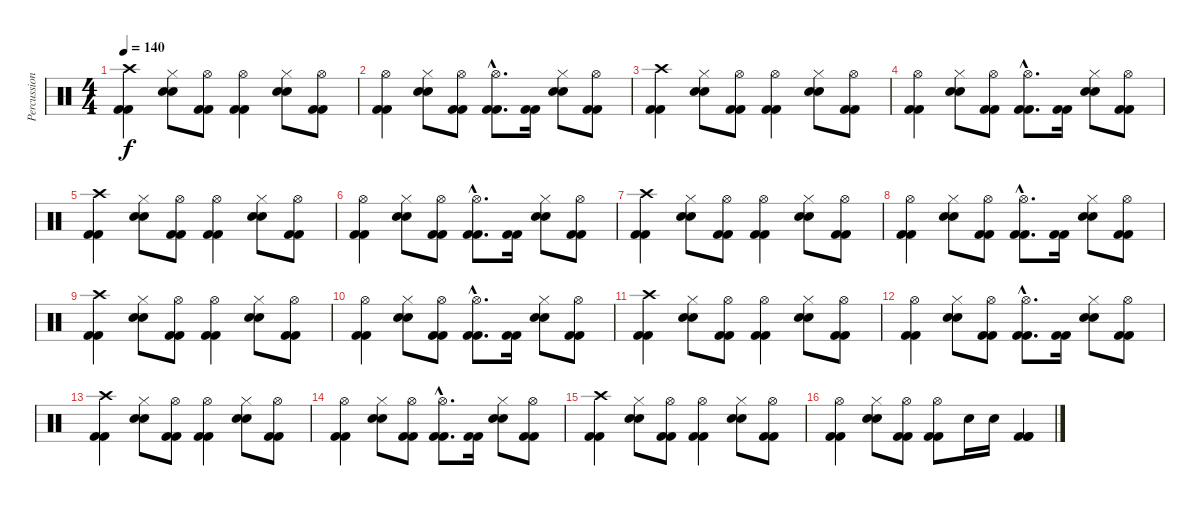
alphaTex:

\track ("Percussion" "Percussion") {instrument percussion}
\staff {score}
\articulation defaults
\ts (4 4)
\tempo 140
\clef neutral
\ks c
("Kick (hit) 2" "Kick (hit) 2" "Crash high (hit)").4{dy f} ("Snare (hit) 2" "Snare (hit) 2" "Hi-Hat (closed)").8 ("Kick (hit) 2" "Kick (hit) 2" "Hi-Hat (open)").8 ("Kick (hit) 2" "Kick (hit) 2" "Hi-Hat (open)").4 ("Snare (hit) 2" "Snare (hit) 2" "Hi-Hat (closed)").8 ("Kick (hit) 2" "Kick (hit) 2" "Hi-Hat (open)").8 |
("Kick (hit) 2" "Kick (hit) 2" "Hi-Hat (open)").4 ("Snare (hit) 2" "Snare (hit) 2" "Hi-Hat (closed)").8 ("Kick (hit) 2" "Kick (hit) 2" "Hi-Hat (open)").8 ("Kick (hit) 2"{hac} "Kick (hit) 2"{hac} "Hi-Hat (open)"{hac}).8{d} ("Kick (hit) 2" "Kick (hit) 2").16 ("Snare (hit) 2" "Snare (hit) 2" "Hi-Hat (closed)").8 ("Kick (hit) 2" "Kick (hit) 2" "Hi-Hat (open)").8 |
("Kick (hit) 2" "Kick (hit) 2" "Crash high (hit)").4 ("Snare (hit) 2" "Snare (hit) 2" "Hi-Hat (closed)").8 ("Kick (hit) 2" "Kick (hit) 2" "Hi-Hat (open)").8 ("Kick (hit) 2" "Kick (hit) 2" "Hi-Hat (open)").4 ("Snare (hit) 2" "Snare (hit) 2" "Hi-Hat (closed)").8 ("Kick (hit) 2" "Kick (hit) 2" "Hi-Hat (open)").8 |
("Kick (hit) 2" "Kick (hit) 2" "Hi-Hat (open)").4 ("Snare (hit) 2" "Snare (hit) 2" "Hi-Hat (closed)").8 ("Kick (hit) 2" "Kick (hit) 2" "Hi-Hat (open)").8 ("Kick (hit) 2"{hac} "Kick (hit) 2"{hac} "Hi-Hat (open)"{hac}).8{d} ("Kick (hit) 2" "Kick (hit) 2").16 ("Snare (hit) 2" "Snare (hit) 2" "Hi-Hat (closed)").8 ("Kick (hit) 2" "Kick (hit) 2" "Hi-Hat (open)").8 |
("Kick (hit) 2" "Kick (hit) 2" "Crash high (hit)").4 ("Snare (hit) 2" "Snare (hit) 2" "Hi-Hat (closed)").8 ("Kick (hit) 2" "Kick (hit) 2" "Hi-Hat (open)").8 ("Kick (hit) 2" "Kick (hit) 2" "Hi-Hat (open)").4 ("Snare (hit) 2" "Snare (hit) 2" "Hi-Hat (closed)").8 ("Kick (hit) 2" "Kick (hit) 2" "Hi-Hat (open)").8 |
("Kick (hit) 2" "Kick (hit) 2" "Hi-Hat (open)").4 ("Snare (hit) 2" "Snare (hit) 2" "Hi-Hat (closed)").8 ("Kick (hit) 2" "Kick (hit) 2" "Hi-Hat (open)").8 ("Kick (hit) 2"{hac} "Kick (hit) 2"{hac} "Hi-Hat (open)"{hac}).8{d} ("Kick (hit) 2" "Kick (hit) 2").16 ("Snare (hit) 2" "Snare (hit) 2" "Hi-Hat (closed)").8 ("Kick (hit) 2" "Kick (hit) 2" "Hi-Hat (open)").8 |
("Kick (hit) 2" "Kick (hit) 2" "Crash high (hit)").4 ("Snare (hit) 2" "Snare (hit) 2" "Hi-Hat (closed)").8 ("Kick (hit) 2" "Kick (hit) 2" "Hi-Hat (open)").8 ("Kick (hit) 2" "Kick (hit) 2" "Hi-Hat (open)").4 ("Snare (hit) 2" "Snare (hit) 2" "Hi-Hat (closed)").8 ("Kick (hit) 2" "Kick (hit) 2" "Hi-Hat (open)").8 |
("Kick (hit) 2" "Kick (hit) 2" "Hi-Hat (open)").4 ("Snare (hit) 2" "Snare (hit) 2" "Hi-Hat (closed)").8 ("Kick (hit) 2" "Kick (hit) 2" "Hi-Hat (open)").8 ("Kick (hit) 2"{hac} "Kick (hit) 2"{hac} "Hi-Hat (open)"{hac}).8{d} ("Kick (hit) 2" "Kick (hit) 2").16 ("Snare (hit) 2" "Snare (hit) 2" "Hi-Hat (closed)").8 ("Kick (hit) 2" "Kick (hit) 2" "Hi-Hat (open)").8 |
("Kick (hit) 2" "Kick (hit) 2" "Crash high (hit)").4 ("Snare (hit) 2" "Snare (hit) 2" "Hi-Hat (closed)").8 ("Kick (hit) 2" "Kick (hit) 2" "Hi-Hat (open)").8 ("Kick (hit) 2" "Kick (hit) 2" "Hi-Hat (open)").4 ("Snare (hit) 2" "Snare (hit) 2" "Hi-Hat (closed)").8 ("Kick (hit) 2" "Kick (hit) 2" "Hi-Hat (open)").8 |
("Kick (hit) 2" "Kick (hit) 2" "Hi-Hat (open)").4 ("Snare (hit) 2" "Snare (hit) 2" "Hi-Hat (closed)").8 ("Kick (hit) 2" "Kick (hit) 2" "Hi-Hat (open)").8 ("Kick (hit) 2"{hac} "Kick (hit) 2"{hac} "Hi-Hat (open)"{hac}).8{d} ("Kick (hit) 2" "Kick (hit) 2").16 ("Snare (hit) 2" "Snare (hit) 2" "Hi-Hat (closed)").8 ("Kick (hit) 2" "Kick (hit) 2" "Hi-Hat (open)").8 |
("Kick (hit) 2" "Kick (hit) 2" "Crash high (hit)").4 ("Snare (hit) 2" "Snare (hit) 2" "Hi-Hat (closed)").8 ("Kick (hit) 2" "Kick (hit) 2" "Hi-Hat (open)").8 ("Kick (hit) 2" "Kick (hit) 2" "Hi-Hat (open)").4 ("Snare (hit) 2" "Snare (hit) 2" "Hi-Hat (closed)").8 ("Kick (hit) 2" "Kick (hit) 2" "Hi-Hat (open)").8 |
("Kick (hit) 2" "Kick (hit) 2" "Hi-Hat (open)").4 ("Snare (hit) 2" "Snare (hit) 2" "Hi-Hat (closed)").8 ("Kick (hit) 2" "Kick (hit) 2" "Hi-Hat (open)").8 ("Kick (hit) 2"{hac} "Kick (hit) 2"{hac} "Hi-Hat (open)"{hac}).8{d} ("Kick (hit) 2" "Kick (hit) 2").16 ("Snare (hit) 2" "Snare (hit) 2" "Hi-Hat (closed)").8 ("Kick (hit) 2" "Kick (hit) 2" "Hi-Hat (open)").8 |
("Kick (hit) 2" "Kick (hit) 2" "Crash high (hit)").4 ("Snare (hit) 2" "Snare (hit) 2" "Hi-Hat (closed)").8 ("Kick (hit) 2" "Kick (hit) 2" "Hi-Hat (open)").8 ("Kick (hit) 2" "Kick (hit) 2" "Hi-Hat (open)").4 ("Snare (hit) 2" "Snare (hit) 2" "Hi-Hat (closed)").8 ("Kick (hit) 2" "Kick (hit) 2" "Hi-Hat (open)").8 |
("Kick (hit) 2" "Kick (hit) 2" "Hi-Hat (open)").4 ("Snare (hit) 2" "Snare (hit) 2" "Hi-Hat (closed)").8 ("Kick (hit) 2" "Kick (hit) 2" "Hi-Hat (open)").8 ("Kick (hit) 2"{hac} "Kick (hit) 2"{hac} "Hi-Hat (open)"{hac}).8{d} ("Kick (hit) 2" "Kick (hit) 2").16 ("Snare (hit) 2" "Snare (hit) 2" "Hi-Hat (closed)").8 ("Kick (hit) 2" "Kick (hit) 2" "Hi-Hat (open)").8 |
("Kick (hit) 2" "Kick (hit) 2" "Crash high (hit)").4 ("Snare (hit) 2" "Snare (hit) 2" "Hi-Hat (closed)").8 ("Kick (hit) 2" "Kick (hit) 2" "Hi-Hat (open)").8 ("Kick (hit) 2" "Kick (hit) 2" "Hi-Hat (open)").4 ("Snare (hit) 2" "Snare (hit) 2" "Hi-Hat (closed)").8 ("Kick (hit) 2" "Kick (hit) 2" "Hi-Hat (open)").8 |
("Kick (hit) 2" "Kick (hit) 2" "Hi-Hat (open)").4 ("Snare (hit) 2" "Snare (hit) 2" "Hi-Hat (closed)").8 ("Kick (hit) 2" "Kick (hit) 2" "Hi-Hat (open)").8 ("Kick (hit) 2" "Kick (hit) 2" "Hi-Hat (open)").8 "Snare (hit) 2".16 "Snare (hit) 2".16 ("Kick (hit) 2" "Kick (hit) 2" "Kick (hit) 2").4
